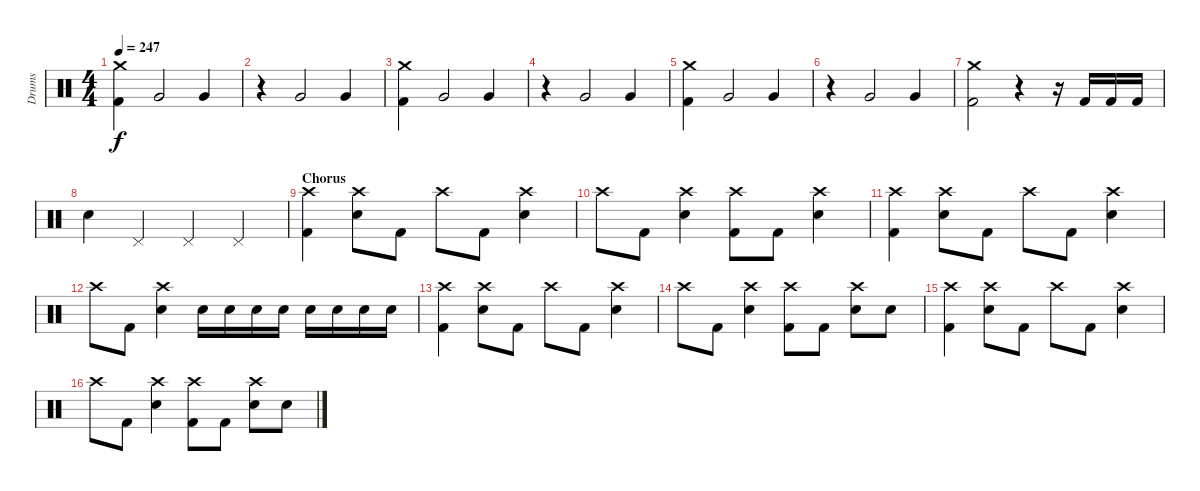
\track ("Drums" "Drums") {instrument percussion}
\staff {score}
\articulation defaults
\ts (4 4)
\tempo 247
\clef neutral
\ks c
("Crash medium (hit)" "Kick (hit) 2").4{dy f} "Very Low Tom (hit)".2 "Very Low Tom (hit)".4 |
r.4 "Very Low Tom (hit)".2 "Very Low Tom (hit)".4 |
("Crash medium (hit)" "Kick (hit) 2").4 "Very Low Tom (hit)".2 "Very Low Tom (hit)".4 |
r.4 "Very Low Tom (hit)".2 "Very Low Tom (hit)".4 |
("Crash medium (hit)" "Kick (hit) 2").4 "Very Low Tom (hit)".2 "Very Low Tom (hit)".4 |
r.4 "Very Low Tom (hit)".2 "Very Low Tom (hit)".4 |
("Crash medium (hit)" "Kick (hit) 2").2 r.4 r.16 "Kick (hit) 2".16 "Kick (hit) 2".16 "Kick (hit) 2".16 |
"Electric Snare (hit)".4 "Pedal Hi-Hat (hit)".4 "Pedal Hi-Hat (hit)".4 "Pedal Hi-Hat (hit)".4 |
\section ("" "Chorus")
("Crash high (hit)" "Kick (hit) 2").4 ("Crash high (hit)" "Electric Snare (hit)").8 "Kick (hit) 2".8 "Crash high (hit)".8 "Kick (hit) 2".8 ("Crash high (hit)" "Electric Snare (hit)").4 |
"Crash high (hit)".8 "Kick (hit) 2".8 ("Crash high (hit)" "Electric Snare (hit)").4 ("Crash high (hit)" "Kick (hit) 2").8 "Kick (hit) 2".8 ("Crash high (hit)" "Electric Snare (hit)").4 |
("Crash high (hit)" "Kick (hit) 2").4 ("Crash high (hit)" "Electric Snare (hit)").8 "Kick (hit) 2".8 "Crash high (hit)".8 "Kick (hit) 2".8 ("Crash high (hit)" "Electric Snare (hit)").4 |
"Crash high (hit)".8 "Kick (hit) 2".8 ("Crash high (hit)" "Electric Snare (hit)").4 "Electric Snare (hit)".16 "Electric Snare (hit)".16 "Electric Snare (hit)".16 "Electric Snare (hit)".16 "Electric Snare (hit)".16 "Electric Snare (hit)".16 "Electric Snare (hit)".16 "Electric Snare (hit)".16 |
("Crash high (hit)" "Kick (hit) 2").4 ("Crash high (hit)" "Electric Snare (hit)").8 "Kick (hit) 2".8 "Crash high (hit)".8 "Kick (hit) 2".8 ("Crash high (hit)" "Electric Snare (hit)").4 |
"Crash high (hit)".8 "Kick (hit) 2".8 ("Crash high (hit)" "Electric Snare (hit)").4 ("Crash high (hit)" "Kick (hit) 2").8 "Kick (hit) 2".8 ("Crash high (hit)" "Electric Snare (hit)").8 "Electric Snare (hit)".8 |
("Crash high (hit)" "Kick (hit) 2").4 ("Crash high (hit)" "Electric Snare (hit)").8 "Kick (hit) 2".8 "Crash high (hit)".8 "Kick (hit) 2".8 ("Crash high (hit)" "Electric Snare (hit)").4 |
"Crash high (hit)".8 "Kick (hit) 2".8 ("Crash high (hit)" "Electric Snare (hit)").4 ("Crash high (hit)" "Kick (hit) 2").8 "Kick (hit) 2".8 ("Crash high (hit)" "Electric Snare (hit)").8 "Electric Snare (hit)".8
